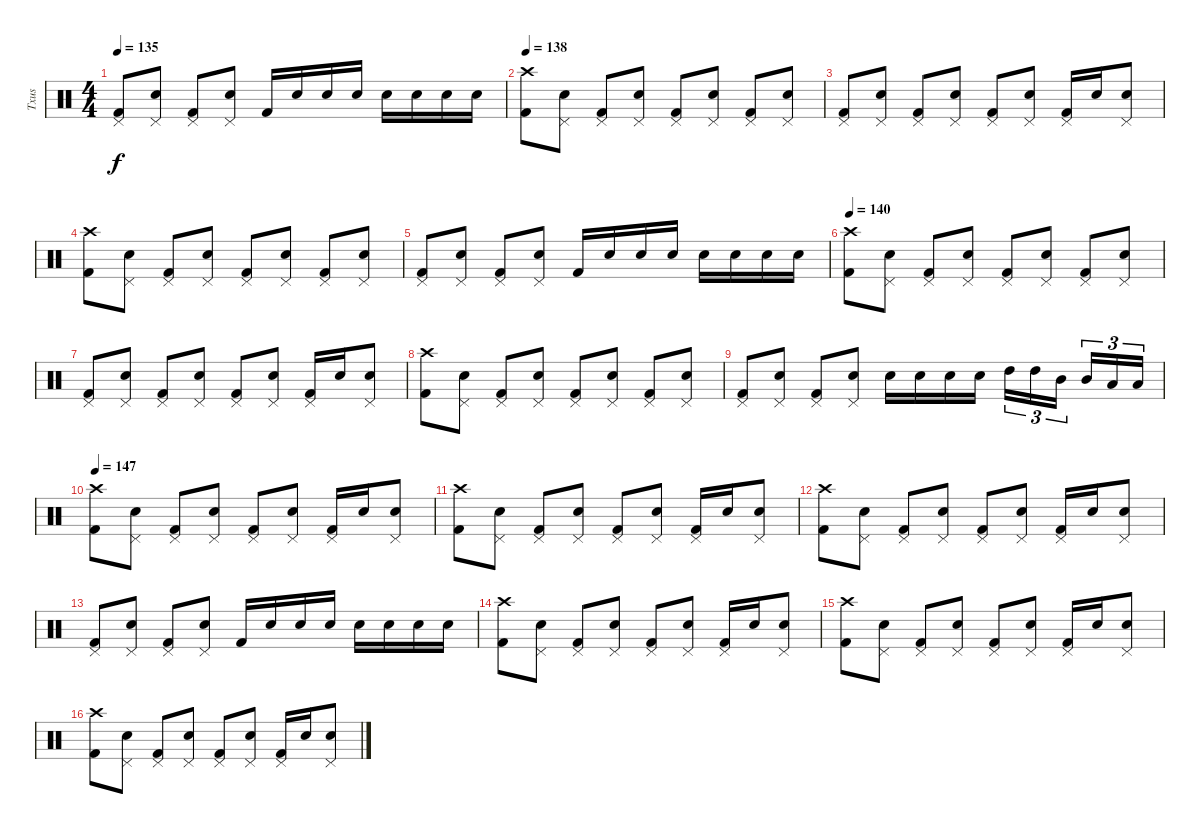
\track ("Txus" "Txus") {instrument percussion}
\staff {score}
\articulation defaults
\ts (4 4)
\tempo 135
\clef neutral
\ks c
("Kick (hit) 2" "Pedal Hi-Hat (hit)").8{dy f} ("Electric Snare (hit)" "Pedal Hi-Hat (hit)").8 ("Kick (hit) 2" "Pedal Hi-Hat (hit)").8 ("Electric Snare (hit)" "Pedal Hi-Hat (hit)").8 "Kick (hit) 2".16 "Electric Snare (hit)".16 "Electric Snare (hit)".16 "Electric Snare (hit)".16 "Electric Snare (hit)".16 "Electric Snare (hit)".16 "Electric Snare (hit)".16 "Electric Snare (hit)".16 |
\section ("" "")
\tempo 138
("Kick (hit) 2" "Crash high (hit)").8 ("Electric Snare (hit)" "Pedal Hi-Hat (hit)").8 ("Kick (hit) 2" "Pedal Hi-Hat (hit)").8 ("Electric Snare (hit)" "Pedal Hi-Hat (hit)").8 ("Kick (hit) 2" "Pedal Hi-Hat (hit)").8 ("Electric Snare (hit)" "Pedal Hi-Hat (hit)").8 ("Kick (hit) 2" "Pedal Hi-Hat (hit)").8 ("Electric Snare (hit)" "Pedal Hi-Hat (hit)").8 |
("Kick (hit) 2" "Pedal Hi-Hat (hit)").8 ("Electric Snare (hit)" "Pedal Hi-Hat (hit)").8 ("Kick (hit) 2" "Pedal Hi-Hat (hit)").8 ("Electric Snare (hit)" "Pedal Hi-Hat (hit)").8 ("Kick (hit) 2" "Pedal Hi-Hat (hit)").8 ("Electric Snare (hit)" "Pedal Hi-Hat (hit)").8 ("Kick (hit) 2" "Pedal Hi-Hat (hit)").16 "Electric Snare (hit)".16 ("Electric Snare (hit)" "Pedal Hi-Hat (hit)").8 |
("Kick (hit) 2" "Crash high (hit)").8 ("Electric Snare (hit)" "Pedal Hi-Hat (hit)").8 ("Kick (hit) 2" "Pedal Hi-Hat (hit)").8 ("Electric Snare (hit)" "Pedal Hi-Hat (hit)").8 ("Kick (hit) 2" "Pedal Hi-Hat (hit)").8 ("Electric Snare (hit)" "Pedal Hi-Hat (hit)").8 ("Kick (hit) 2" "Pedal Hi-Hat (hit)").8 ("Electric Snare (hit)" "Pedal Hi-Hat (hit)").8 |
("Kick (hit) 2" "Pedal Hi-Hat (hit)").8 ("Electric Snare (hit)" "Pedal Hi-Hat (hit)").8 ("Kick (hit) 2" "Pedal Hi-Hat (hit)").8 ("Electric Snare (hit)" "Pedal Hi-Hat (hit)").8 "Kick (hit) 2".16 "Electric Snare (hit)".16 "Electric Snare (hit)".16 "Electric Snare (hit)".16 "Electric Snare (hit)".16 "Electric Snare (hit)".16 "Electric Snare (hit)".16 "Electric Snare (hit)".16 |
\tempo 140
("Kick (hit) 2" "Crash high (hit)").8 ("Electric Snare (hit)" "Pedal Hi-Hat (hit)").8 ("Kick (hit) 2" "Pedal Hi-Hat (hit)").8 ("Electric Snare (hit)" "Pedal Hi-Hat (hit)").8 ("Kick (hit) 2" "Pedal Hi-Hat (hit)").8 ("Electric Snare (hit)" "Pedal Hi-Hat (hit)").8 ("Kick (hit) 2" "Pedal Hi-Hat (hit)").8 ("Electric Snare (hit)" "Pedal Hi-Hat (hit)").8 |
("Kick (hit) 2" "Pedal Hi-Hat (hit)").8 ("Electric Snare (hit)" "Pedal Hi-Hat (hit)").8 ("Kick (hit) 2" "Pedal Hi-Hat (hit)").8 ("Electric Snare (hit)" "Pedal Hi-Hat (hit)").8 ("Kick (hit) 2" "Pedal Hi-Hat (hit)").8 ("Electric Snare (hit)" "Pedal Hi-Hat (hit)").8 ("Kick (hit) 2" "Pedal Hi-Hat (hit)").16 "Electric Snare (hit)".16 ("Electric Snare (hit)" "Pedal Hi-Hat (hit)").8 |
("Kick (hit) 2" "Crash high (hit)").8 ("Electric Snare (hit)" "Pedal Hi-Hat (hit)").8 ("Kick (hit) 2" "Pedal Hi-Hat (hit)").8 ("Electric Snare (hit)" "Pedal Hi-Hat (hit)").8 ("Kick (hit) 2" "Pedal Hi-Hat (hit)").8 ("Electric Snare (hit)" "Pedal Hi-Hat (hit)").8 ("Kick (hit) 2" "Pedal Hi-Hat (hit)").8 ("Electric Snare (hit)" "Pedal Hi-Hat (hit)").8 |
("Kick (hit) 2" "Pedal Hi-Hat (hit)").8 ("Electric Snare (hit)" "Pedal Hi-Hat (hit)").8 ("Kick (hit) 2" "Pedal Hi-Hat (hit)").8 ("Electric Snare (hit)" "Pedal Hi-Hat (hit)").8 "Electric Snare (hit)".16 "Electric Snare (hit)".16 "Electric Snare (hit)".16 "Electric Snare (hit)".16 "High Tom (hit)".16{tu (3 2)} "High Tom (hit)".16{tu (3 2)} "Mid Tom (hit)".16{tu (3 2)} "Mid Tom (hit)".16{tu (3 2)} "Low Tom (hit)".16{tu (3 2)} "Low Tom (hit)".16{tu (3 2)} |
\section ("" "")
\tempo 147
("Kick (hit) 2" "Crash high (hit)").8 ("Electric Snare (hit)" "Pedal Hi-Hat (hit)").8 ("Kick (hit) 2" "Pedal Hi-Hat (hit)").8 ("Electric Snare (hit)" "Pedal Hi-Hat (hit)").8 ("Kick (hit) 2" "Pedal Hi-Hat (hit)").8 ("Electric Snare (hit)" "Pedal Hi-Hat (hit)").8 ("Kick (hit) 2" "Pedal Hi-Hat (hit)").16 "Electric Snare (hit)".16 ("Electric Snare (hit)" "Pedal Hi-Hat (hit)").8 |
("Kick (hit) 2" "Crash high (hit)").8 ("Electric Snare (hit)" "Pedal Hi-Hat (hit)").8 ("Kick (hit) 2" "Pedal Hi-Hat (hit)").8 ("Electric Snare (hit)" "Pedal Hi-Hat (hit)").8 ("Kick (hit) 2" "Pedal Hi-Hat (hit)").8 ("Electric Snare (hit)" "Pedal Hi-Hat (hit)").8 ("Kick (hit) 2" "Pedal Hi-Hat (hit)").16 "Electric Snare (hit)".16 ("Electric Snare (hit)" "Pedal Hi-Hat (hit)").8 |
("Kick (hit) 2" "Crash high (hit)").8 ("Electric Snare (hit)" "Pedal Hi-Hat (hit)").8 ("Kick (hit) 2" "Pedal Hi-Hat (hit)").8 ("Electric Snare (hit)" "Pedal Hi-Hat (hit)").8 ("Kick (hit) 2" "Pedal Hi-Hat (hit)").8 ("Electric Snare (hit)" "Pedal Hi-Hat (hit)").8 ("Kick (hit) 2" "Pedal Hi-Hat (hit)").16 "Electric Snare (hit)".16 ("Electric Snare (hit)" "Pedal Hi-Hat (hit)").8 |
("Kick (hit) 2" "Pedal Hi-Hat (hit)").8 ("Electric Snare (hit)" "Pedal Hi-Hat (hit)").8 ("Kick (hit) 2" "Pedal Hi-Hat (hit)").8 ("Electric Snare (hit)" "Pedal Hi-Hat (hit)").8 "Kick (hit) 2".16 "Electric Snare (hit)".16 "Electric Snare (hit)".16 "Electric Snare (hit)".16 "Electric Snare (hit)".16 "Electric Snare (hit)".16 "Electric Snare (hit)".16 "Electric Snare (hit)".16 |
("Kick (hit) 2" "Crash high (hit)").8 ("Electric Snare (hit)" "Pedal Hi-Hat (hit)").8 ("Kick (hit) 2" "Pedal Hi-Hat (hit)").8 ("Electric Snare (hit)" "Pedal Hi-Hat (hit)").8 ("Kick (hit) 2" "Pedal Hi-Hat (hit)").8 ("Electric Snare (hit)" "Pedal Hi-Hat (hit)").8 ("Kick (hit) 2" "Pedal Hi-Hat (hit)").16 "Electric Snare (hit)".16 ("Electric Snare (hit)" "Pedal Hi-Hat (hit)").8 |
("Kick (hit) 2" "Crash high (hit)").8 ("Electric Snare (hit)" "Pedal Hi-Hat (hit)").8 ("Kick (hit) 2" "Pedal Hi-Hat (hit)").8 ("Electric Snare (hit)" "Pedal Hi-Hat (hit)").8 ("Kick (hit) 2" "Pedal Hi-Hat (hit)").8 ("Electric Snare (hit)" "Pedal Hi-Hat (hit)").8 ("Kick (hit) 2" "Pedal Hi-Hat (hit)").16 "Electric Snare (hit)".16 ("Electric Snare (hit)" "Pedal Hi-Hat (hit)").8 |
("Kick (hit) 2" "Crash high (hit)").8 ("Electric Snare (hit)" "Pedal Hi-Hat (hit)").8 ("Kick (hit) 2" "Pedal Hi-Hat (hit)").8 ("Electric Snare (hit)" "Pedal Hi-Hat (hit)").8 ("Kick (hit) 2" "Pedal Hi-Hat (hit)").8 ("Electric Snare (hit)" "Pedal Hi-Hat (hit)").8 ("Kick (hit) 2" "Pedal Hi-Hat (hit)").16 "Electric Snare (hit)".16 ("Electric Snare (hit)" "Pedal Hi-Hat (hit)").8
